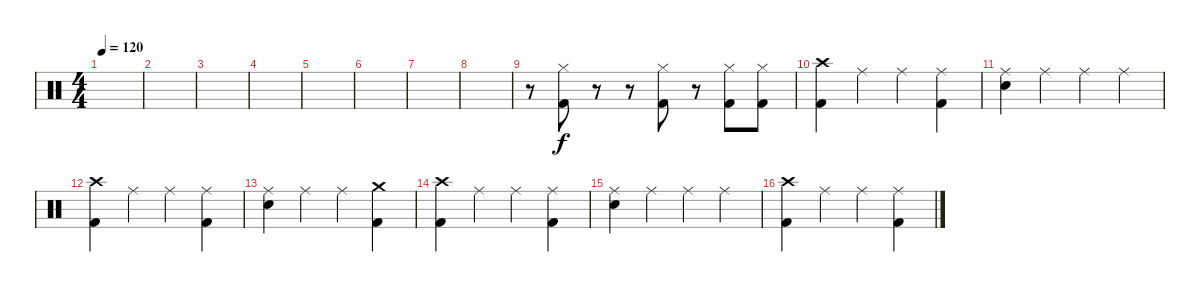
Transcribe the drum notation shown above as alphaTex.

\track "" {instrument percussion}
\staff {score}
\articulation defaults
\ts (4 4)
\tempo 120
\clef neutral
\ks c
|
|
|
|
|
|
|
|
r.8 ("Hi-Hat (closed)" "Kick (hit) 2").8 r.8 r.8 ("Hi-Hat (closed)" "Kick (hit) 2").8 r.8 ("Hi-Hat (closed)" "Kick (hit) 2").8 ("Hi-Hat (closed)" "Kick (hit) 2").8 |
("Kick (hit) 2" "Crash high (hit)").4 "Ride (middle)".4 "Ride (middle)".4 ("Ride (middle)" "Kick (hit) 2").4 |
("Ride (middle)" "Snare (hit) 2").4 "Ride (middle)".4 "Ride (middle)".4 "Ride (middle)".4 |
("Kick (hit) 2" "Crash high (hit)").4 "Ride (middle)".4 "Ride (middle)".4 ("Ride (middle)" "Kick (hit) 2").4 |
("Ride (middle)" "Snare (hit) 2").4 "Ride (middle)".4 "Ride (middle)".4 ("Kick (hit) 2" "Crash medium (hit)").4 |
("Kick (hit) 2" "Crash high (hit)").4 "Ride (middle)".4 "Ride (middle)".4 ("Ride (middle)" "Kick (hit) 2").4 |
("Ride (middle)" "Snare (hit) 2").4 "Ride (middle)".4 "Ride (middle)".4 "Ride (middle)".4 |
("Kick (hit) 2" "Crash high (hit)").4 "Ride (middle)".4 "Ride (middle)".4 ("Ride (middle)" "Kick (hit) 2").4
